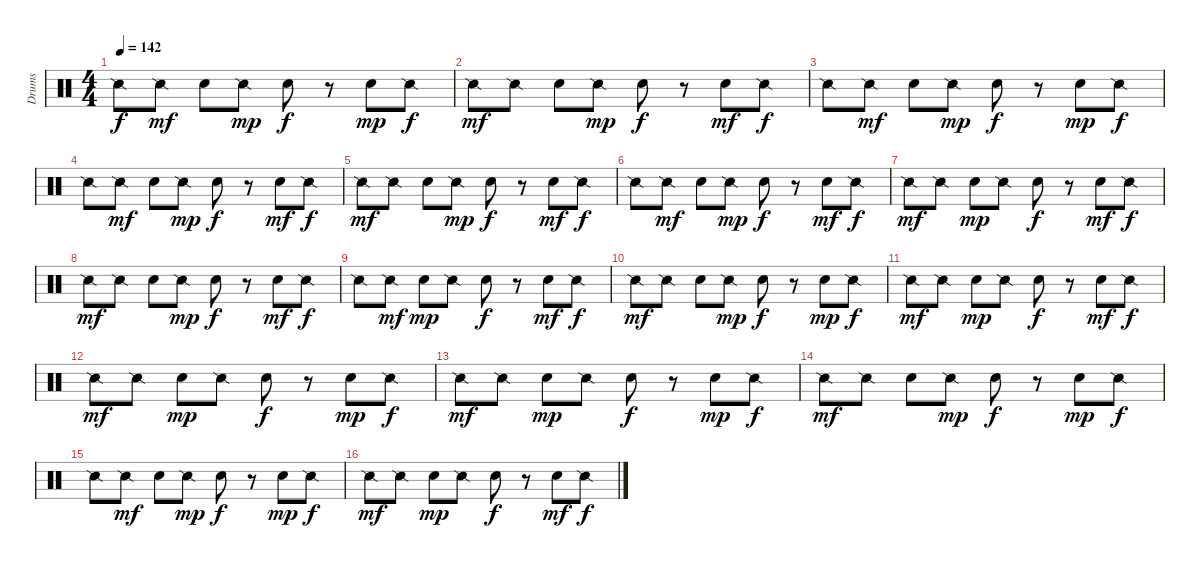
\track ("Drums" "Drums") {instrument percussion}
\staff {score}
\articulation defaults
\ts (4 4)
\tempo 142
\clef neutral
\ks c "Snare (side stick) 2".8{dy f} "Snare (side stick) 2".8{dy mf} "Electric Snare (hit)".8 "Snare (side stick) 2".8{dy mp} "Electric Snare (hit)".8{dy f}
r.8 "Electric Snare (hit)".8{dy mp} "Snare (side stick) 2".8{dy f} |
"Snare (side stick) 2".8{dy mf} "Snare (side stick) 2".8 "Electric Snare (hit)".8 "Snare (side stick) 2".8{dy mp} "Electric Snare (hit)".8{dy f} r.8 "Electric Snare (hit)".8{dy mf} "Snare (side stick) 2".8{dy f} |
"Snare (side stick) 2".8 "Snare (side stick) 2".8{dy mf} "Electric Snare (hit)".8 "Snare (side stick) 2".8{dy mp} "Electric Snare (hit)".8{dy f} r.8 "Electric Snare (hit)".8{dy mp} "Snare (side stick) 2".8{dy f} |
"Snare (side stick) 2".8 "Snare (side stick) 2".8{dy mf} "Electric Snare (hit)".8 "Snare (side stick) 2".8{dy mp} "Electric Snare (hit)".8{dy f} r.8 "Electric Snare (hit)".8{dy mf} "Snare (side stick) 2".8{dy f} |
"Snare (side stick) 2".8{dy mf} "Snare (side stick) 2".8 "Electric Snare (hit)".8 "Snare (side stick) 2".8{dy mp} "Electric Snare (hit)".8{dy f} r.8 "Electric Snare (hit)".8{dy mf} "Snare (side stick) 2".8{dy f} |
"Snare (side stick) 2".8 "Snare (side stick) 2".8{dy mf} "Electric Snare (hit)".8 "Snare (side stick) 2".8{dy mp} "Electric Snare (hit)".8{dy f} r.8 "Electric Snare (hit)".8{dy mf} "Snare (side stick) 2".8{dy f} |
"Snare (side stick) 2".8{dy mf} "Snare (side stick) 2".8 "Electric Snare (hit)".8{dy mp} "Snare (side stick) 2".8 "Electric Snare (hit)".8{dy f} r.8 "Electric Snare (hit)".8{dy mf} "Snare (side stick) 2".8{dy f} |
"Snare (side stick) 2".8{dy mf} "Snare (side stick) 2".8 "Electric Snare (hit)".8 "Snare (side stick) 2".8{dy mp} "Electric Snare (hit)".8{dy f} r.8 "Electric Snare (hit)".8{dy mf} "Snare (side stick) 2".8{dy f} |
"Snare (side stick) 2".8 "Snare (side stick) 2".8{dy mf} "Electric Snare (hit)".8{dy mp} "Snare (side stick) 2".8 "Electric Snare (hit)".8{dy f} r.8 "Electric Snare (hit)".8{dy mf} "Snare (side stick) 2".8{dy f} |
"Snare (side stick) 2".8{dy mf} "Snare (side stick) 2".8 "Electric Snare (hit)".8 "Snare (side stick) 2".8{dy mp} "Electric Snare (hit)".8{dy f} r.8 "Electric Snare (hit)".8{dy mp} "Snare (side stick) 2".8{dy f} |
"Snare (side stick) 2".8{dy mf} "Snare (side stick) 2".8 "Electric Snare (hit)".8{dy mp} "Snare (side stick) 2".8 "Electric Snare (hit)".8{dy f} r.8 "Electric Snare (hit)".8{dy mf} "Snare (side stick) 2".8{dy f} |
"Snare (side stick) 2".8{dy mf} "Snare (side stick) 2".8 "Electric Snare (hit)".8{dy mp} "Snare (side stick) 2".8 "Electric Snare (hit)".8{dy f} r.8 "Electric Snare (hit)".8{dy mp} "Snare (side stick) 2".8{dy f} |
"Snare (side stick) 2".8{dy mf} "Snare (side stick) 2".8 "Electric Snare (hit)".8{dy mp} "Snare (side stick) 2".8 "Electric Snare (hit)".8{dy f} r.8 "Electric Snare (hit)".8{dy mp} "Snare (side stick) 2".8{dy f} |
"Snare (side stick) 2".8{dy mf} "Snare (side stick) 2".8 "Electric Snare (hit)".8 "Snare (side stick) 2".8{dy mp} "Electric Snare (hit)".8{dy f} r.8 "Electric Snare (hit)".8{dy mp} "Snare (side stick) 2".8{dy f} |
"Snare (side stick) 2".8 "Snare (side stick) 2".8{dy mf} "Electric Snare (hit)".8 "Snare (side stick) 2".8{dy mp} "Electric Snare (hit)".8{dy f} r.8 "Electric Snare (hit)".8{dy mp} "Snare (side stick) 2".8{dy f} |
"Snare (side stick) 2".8{dy mf} "Snare (side stick) 2".8 "Electric Snare (hit)".8{dy mp} "Snare (side stick) 2".8 "Electric Snare (hit)".8{dy f} r.8 "Electric Snare (hit)".8{dy mf} "Snare (side stick) 2".8{dy f}
